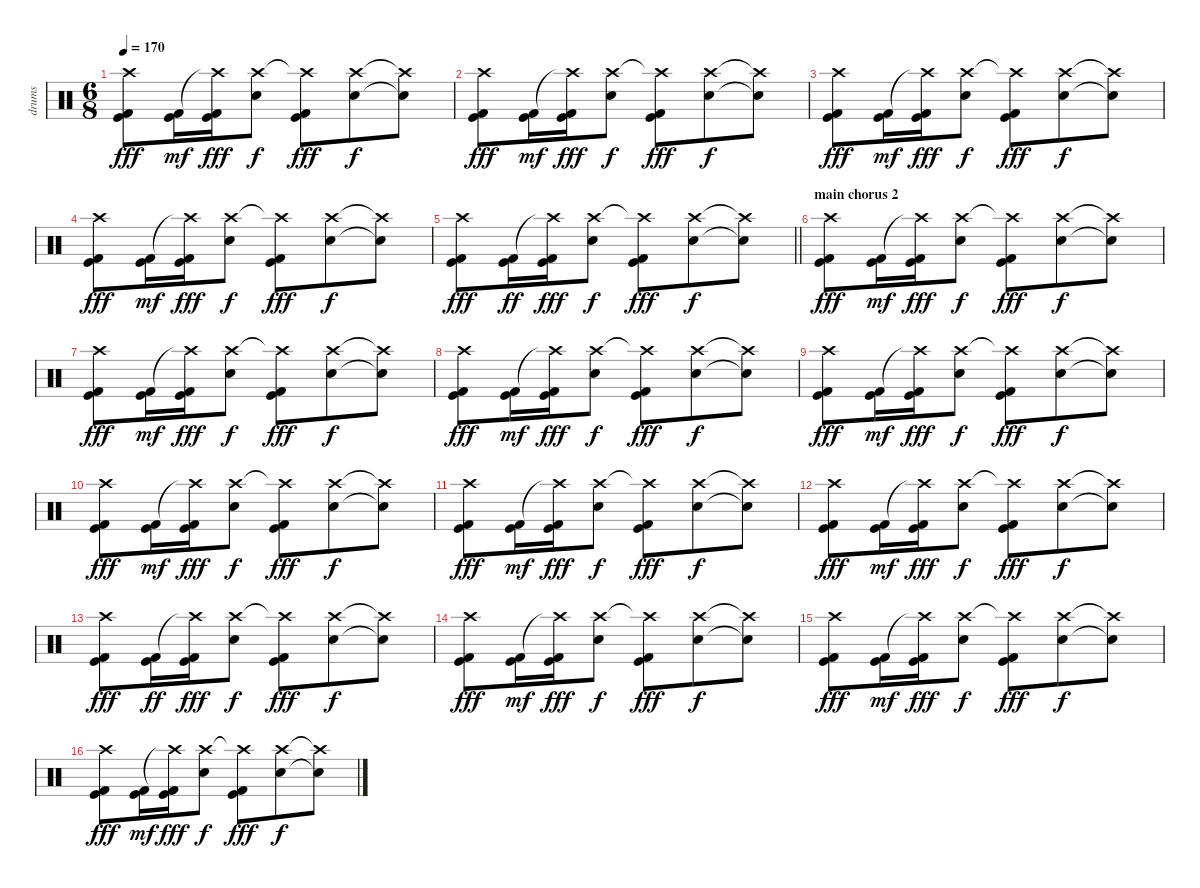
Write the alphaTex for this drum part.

\track ("drums " "drums ") {instrument percussion}
\staff {score}
\articulation defaults
\ts (6 8)
\tempo 170
\clef neutral
\ks c
("Crash high (hit)" "Kick (hit) 2" "Kick (hit)").8{dy fff} ("Kick (hit) 2" "Kick (hit)").16{dy mf} ("Crash high (hit)"{t} "Kick (hit) 2" "Kick (hit)").16{dy fff} ("Crash high (hit)" "Electric Snare (hit)").8{dy f} ("Crash high (hit)"{t} "Kick (hit) 2" "Kick (hit)").8{dy fff} ("Crash high (hit)" "Electric Snare (hit)").8{dy f} ("Crash high (hit)"{t} "Electric Snare (hit)"{t}).8 |
("Crash high (hit)" "Kick (hit) 2" "Kick (hit)").8{dy fff} ("Kick (hit) 2" "Kick (hit)").16{dy mf} ("Crash high (hit)"{t} "Kick (hit) 2" "Kick (hit)").16{dy fff} ("Crash high (hit)" "Electric Snare (hit)").8{dy f} ("Crash high (hit)"{t} "Kick (hit) 2" "Kick (hit)").8{dy fff} ("Crash high (hit)" "Electric Snare (hit)").8{dy f} ("Crash high (hit)"{t} "Electric Snare (hit)"{t}).8 |
("Crash high (hit)" "Kick (hit) 2" "Kick (hit)").8{dy fff} ("Kick (hit) 2" "Kick (hit)").16{dy mf} ("Crash high (hit)"{t} "Kick (hit) 2" "Kick (hit)").16{dy fff} ("Crash high (hit)" "Electric Snare (hit)").8{dy f} ("Crash high (hit)"{t} "Kick (hit) 2" "Kick (hit)").8{dy fff} ("Crash high (hit)" "Electric Snare (hit)").8{dy f} ("Crash high (hit)"{t} "Electric Snare (hit)"{t}).8 |
("Crash high (hit)" "Kick (hit) 2" "Kick (hit)").8{dy fff} ("Kick (hit) 2" "Kick (hit)").16{dy mf} ("Crash high (hit)"{t} "Kick (hit) 2" "Kick (hit)").16{dy fff} ("Crash high (hit)" "Electric Snare (hit)").8{dy f} ("Crash high (hit)"{t} "Kick (hit) 2" "Kick (hit)").8{dy fff} ("Crash high (hit)" "Electric Snare (hit)").8{dy f} ("Crash high (hit)"{t} "Electric Snare (hit)"{t}).8 |
\barLineRight lightlight
("Crash high (hit)" "Kick (hit) 2" "Kick (hit)").8{dy fff} ("Kick (hit) 2" "Kick (hit)").16{dy ff} ("Crash high (hit)"{t} "Kick (hit) 2" "Kick (hit)").16{dy fff} ("Crash high (hit)" "Electric Snare (hit)").8{dy f} ("Crash high (hit)"{t} "Kick (hit) 2" "Kick (hit)").8{dy fff} ("Crash high (hit)" "Electric Snare (hit)").8{dy f} ("Crash high (hit)"{t} "Electric Snare (hit)"{t}).8 |
\section ("" "main chorus 2")
("Crash high (hit)" "Kick (hit) 2" "Kick (hit)").8{dy fff} ("Kick (hit) 2" "Kick (hit)").16{dy mf} ("Crash high (hit)"{t} "Kick (hit) 2" "Kick (hit)").16{dy fff} ("Crash high (hit)" "Electric Snare (hit)").8{dy f} ("Crash high (hit)"{t} "Kick (hit) 2" "Kick (hit)").8{dy fff} ("Crash high (hit)" "Electric Snare (hit)").8{dy f} ("Crash high (hit)"{t} "Electric Snare (hit)"{t}).8 |
("Crash high (hit)" "Kick (hit) 2" "Kick (hit)").8{dy fff} ("Kick (hit) 2" "Kick (hit)").16{dy mf} ("Crash high (hit)"{t} "Kick (hit) 2" "Kick (hit)").16{dy fff} ("Crash high (hit)" "Electric Snare (hit)").8{dy f} ("Crash high (hit)"{t} "Kick (hit) 2" "Kick (hit)").8{dy fff} ("Crash high (hit)" "Electric Snare (hit)").8{dy f} ("Crash high (hit)"{t} "Electric Snare (hit)"{t}).8 |
("Crash high (hit)" "Kick (hit) 2" "Kick (hit)").8{dy fff} ("Kick (hit) 2" "Kick (hit)").16{dy mf} ("Crash high (hit)"{t} "Kick (hit) 2" "Kick (hit)").16{dy fff} ("Crash high (hit)" "Electric Snare (hit)").8{dy f} ("Crash high (hit)"{t} "Kick (hit) 2" "Kick (hit)").8{dy fff} ("Crash high (hit)" "Electric Snare (hit)").8{dy f} ("Crash high (hit)"{t} "Electric Snare (hit)"{t}).8 |
("Crash high (hit)" "Kick (hit) 2" "Kick (hit)").8{dy fff} ("Kick (hit) 2" "Kick (hit)").16{dy mf} ("Crash high (hit)"{t} "Kick (hit) 2" "Kick (hit)").16{dy fff} ("Crash high (hit)" "Electric Snare (hit)").8{dy f} ("Crash high (hit)"{t} "Kick (hit) 2" "Kick (hit)").8{dy fff} ("Crash high (hit)" "Electric Snare (hit)").8{dy f} ("Crash high (hit)"{t} "Electric Snare (hit)"{t}).8 |
("Crash high (hit)" "Kick (hit) 2" "Kick (hit)").8{dy fff} ("Kick (hit) 2" "Kick (hit)").16{dy mf} ("Crash high (hit)"{t} "Kick (hit) 2" "Kick (hit)").16{dy fff} ("Crash high (hit)" "Electric Snare (hit)").8{dy f} ("Crash high (hit)"{t} "Kick (hit) 2" "Kick (hit)").8{dy fff} ("Crash high (hit)" "Electric Snare (hit)").8{dy f} ("Crash high (hit)"{t} "Electric Snare (hit)"{t}).8 |
("Crash high (hit)" "Kick (hit) 2" "Kick (hit)").8{dy fff} ("Kick (hit) 2" "Kick (hit)").16{dy mf} ("Crash high (hit)"{t} "Kick (hit) 2" "Kick (hit)").16{dy fff} ("Crash high (hit)" "Electric Snare (hit)").8{dy f} ("Crash high (hit)"{t} "Kick (hit) 2" "Kick (hit)").8{dy fff} ("Crash high (hit)" "Electric Snare (hit)").8{dy f} ("Crash high (hit)"{t} "Electric Snare (hit)"{t}).8 |
("Crash high (hit)" "Kick (hit) 2" "Kick (hit)").8{dy fff} ("Kick (hit) 2" "Kick (hit)").16{dy mf} ("Crash high (hit)"{t} "Kick (hit) 2" "Kick (hit)").16{dy fff} ("Crash high (hit)" "Electric Snare (hit)").8{dy f} ("Crash high (hit)"{t} "Kick (hit) 2" "Kick (hit)").8{dy fff} ("Crash high (hit)" "Electric Snare (hit)").8{dy f} ("Crash high (hit)"{t} "Electric Snare (hit)"{t}).8 |
("Crash high (hit)" "Kick (hit) 2" "Kick (hit)").8{dy fff} ("Kick (hit) 2" "Kick (hit)").16{dy ff} ("Crash high (hit)"{t} "Kick (hit) 2" "Kick (hit)").16{dy fff} ("Crash high (hit)" "Electric Snare (hit)").8{dy f} ("Crash high (hit)"{t} "Kick (hit) 2" "Kick (hit)").8{dy fff} ("Crash high (hit)" "Electric Snare (hit)").8{dy f} ("Crash high (hit)"{t} "Electric Snare (hit)"{t}).8 |
("Crash high (hit)" "Kick (hit) 2" "Kick (hit)").8{dy fff} ("Kick (hit) 2" "Kick (hit)").16{dy mf} ("Crash high (hit)"{t} "Kick (hit) 2" "Kick (hit)").16{dy fff} ("Crash high (hit)" "Electric Snare (hit)").8{dy f} ("Crash high (hit)"{t} "Kick (hit) 2" "Kick (hit)").8{dy fff} ("Crash high (hit)" "Electric Snare (hit)").8{dy f} ("Crash high (hit)"{t} "Electric Snare (hit)"{t}).8 |
("Crash high (hit)" "Kick (hit) 2" "Kick (hit)").8{dy fff} ("Kick (hit) 2" "Kick (hit)").16{dy mf} ("Crash high (hit)"{t} "Kick (hit) 2" "Kick (hit)").16{dy fff} ("Crash high (hit)" "Electric Snare (hit)").8{dy f} ("Crash high (hit)"{t} "Kick (hit) 2" "Kick (hit)").8{dy fff} ("Crash high (hit)" "Electric Snare (hit)").8{dy f} ("Crash high (hit)"{t} "Electric Snare (hit)"{t}).8 |
("Crash high (hit)" "Kick (hit) 2" "Kick (hit)").8{dy fff} ("Kick (hit) 2" "Kick (hit)").16{dy mf} ("Crash high (hit)"{t} "Kick (hit) 2" "Kick (hit)").16{dy fff} ("Crash high (hit)" "Electric Snare (hit)").8{dy f} ("Crash high (hit)"{t} "Kick (hit) 2" "Kick (hit)").8{dy fff} ("Crash high (hit)" "Electric Snare (hit)").8{dy f} ("Crash high (hit)"{t} "Electric Snare (hit)"{t}).8
